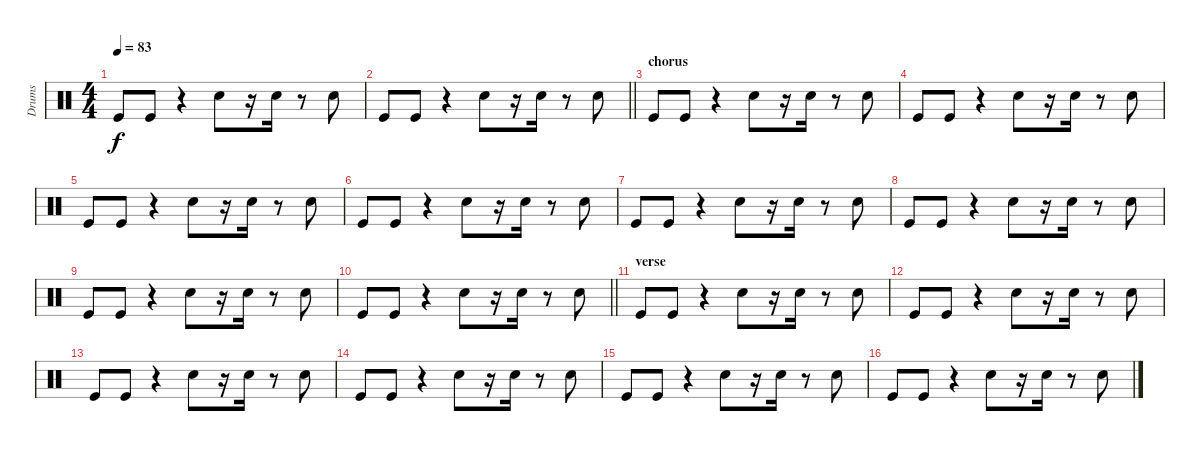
\track ("Drums" "Drums") {instrument percussion}
\staff {score}
\articulation defaults
\ts (4 4)
\tempo 83
\clef neutral
\ks c "Kick (hit)".8{dy f} "Kick (hit)".8
r.4 "Snare (hit) 2".8 r.16 "Electric Snare (hit)".16 r.8 "Electric Snare (hit)".8 |
\barLineRight lightlight "Kick (hit)".8 "Kick (hit)".8
r.4 "Snare (hit) 2".8 r.16 "Electric Snare (hit)".16 r.8 "Electric Snare (hit)".8 |
\section ("" "chorus")
"Kick (hit)".8 "Kick (hit)".8 r.4 "Snare (hit) 2".8 r.16 "Electric Snare (hit)".16 r.8 "Electric Snare (hit)".8 |
"Kick (hit)".8 "Kick (hit)".8 r.4 "Snare (hit) 2".8 r.16 "Electric Snare (hit)".16 r.8 "Electric Snare (hit)".8 |
"Kick (hit)".8 "Kick (hit)".8 r.4 "Snare (hit) 2".8 r.16 "Electric Snare (hit)".16 r.8 "Electric Snare (hit)".8 |
"Kick (hit)".8 "Kick (hit)".8 r.4 "Snare (hit) 2".8 r.16 "Electric Snare (hit)".16 r.8 "Electric Snare (hit)".8 |
"Kick (hit)".8 "Kick (hit)".8 r.4 "Snare (hit) 2".8 r.16 "Electric Snare (hit)".16 r.8 "Electric Snare (hit)".8 |
"Kick (hit)".8 "Kick (hit)".8 r.4 "Snare (hit) 2".8 r.16 "Electric Snare (hit)".16 r.8 "Electric Snare (hit)".8 |
"Kick (hit)".8 "Kick (hit)".8 r.4 "Snare (hit) 2".8 r.16 "Electric Snare (hit)".16 r.8 "Electric Snare (hit)".8 |
\barLineRight lightlight "Kick (hit)".8 "Kick (hit)".8
r.4 "Snare (hit) 2".8 r.16 "Electric Snare (hit)".16 r.8 "Electric Snare (hit)".8 |
\section ("" "verse")
"Kick (hit)".8 "Kick (hit)".8 r.4 "Snare (hit) 2".8 r.16 "Electric Snare (hit)".16 r.8 "Electric Snare (hit)".8 |
"Kick (hit)".8 "Kick (hit)".8 r.4 "Snare (hit) 2".8 r.16 "Electric Snare (hit)".16 r.8 "Electric Snare (hit)".8 |
"Kick (hit)".8 "Kick (hit)".8 r.4 "Snare (hit) 2".8 r.16 "Electric Snare (hit)".16 r.8 "Electric Snare (hit)".8 |
"Kick (hit)".8 "Kick (hit)".8 r.4 "Snare (hit) 2".8 r.16 "Electric Snare (hit)".16 r.8 "Electric Snare (hit)".8 |
"Kick (hit)".8 "Kick (hit)".8 r.4 "Snare (hit) 2".8 r.16 "Electric Snare (hit)".16 r.8 "Electric Snare (hit)".8 |
"Kick (hit)".8 "Kick (hit)".8 r.4 "Snare (hit) 2".8 r.16 "Electric Snare (hit)".16 r.8 "Electric Snare (hit)".8
